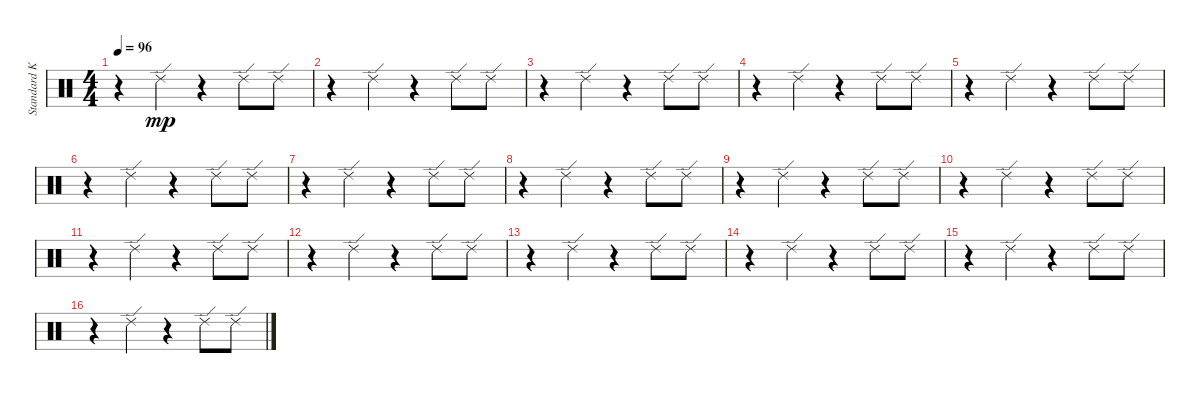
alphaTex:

\track ("Standard Kit" "Standard K") {instrument percussion}
\staff {score}
\articulation defaults
\ts (4 4)
\tempo 96
\clef neutral
\ks c
r.4{dy mp} "Ride (edge) 2".4 r.4 "Ride (edge) 2".8 "Ride (edge) 2".8 |
r.4 "Ride (edge) 2".4 r.4 "Ride (edge) 2".8 "Ride (edge) 2".8 |
r.4 "Ride (edge) 2".4 r.4 "Ride (edge) 2".8 "Ride (edge) 2".8 |
r.4 "Ride (edge) 2".4 r.4 "Ride (edge) 2".8 "Ride (edge) 2".8 |
r.4 "Ride (edge) 2".4 r.4 "Ride (edge) 2".8 "Ride (edge) 2".8 |
r.4 "Ride (edge) 2".4 r.4 "Ride (edge) 2".8 "Ride (edge) 2".8 |
r.4 "Ride (edge) 2".4 r.4 "Ride (edge) 2".8 "Ride (edge) 2".8 |
r.4 "Ride (edge) 2".4 r.4 "Ride (edge) 2".8 "Ride (edge) 2".8 |
r.4 "Ride (edge) 2".4 r.4 "Ride (edge) 2".8 "Ride (edge) 2".8 |
r.4 "Ride (edge) 2".4 r.4 "Ride (edge) 2".8 "Ride (edge) 2".8 |
r.4 "Ride (edge) 2".4 r.4 "Ride (edge) 2".8 "Ride (edge) 2".8 |
r.4 "Ride (edge) 2".4 r.4 "Ride (edge) 2".8 "Ride (edge) 2".8 |
r.4 "Ride (edge) 2".4 r.4 "Ride (edge) 2".8 "Ride (edge) 2".8 |
r.4 "Ride (edge) 2".4 r.4 "Ride (edge) 2".8 "Ride (edge) 2".8 |
r.4 "Ride (edge) 2".4 r.4 "Ride (edge) 2".8 "Ride (edge) 2".8 |
r.4 "Ride (edge) 2".4 r.4 "Ride (edge) 2".8 "Ride (edge) 2".8
